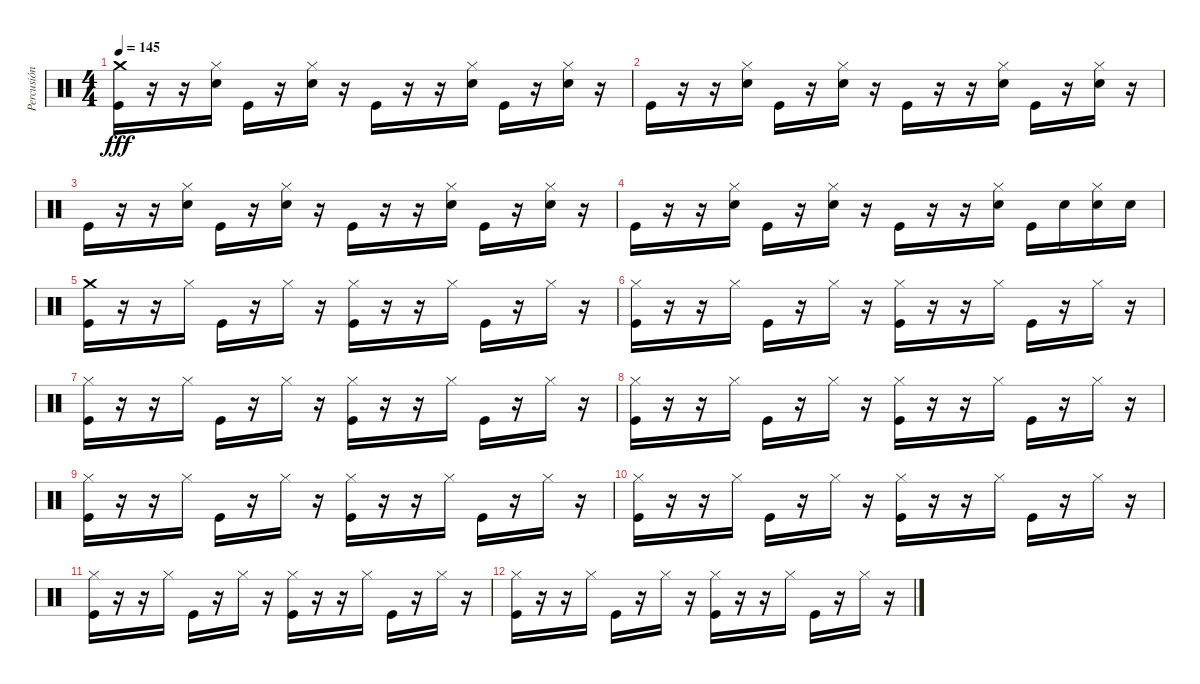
\track ("Percusión" "Percusión") {instrument percussion}
\staff {score}
\articulation defaults
\ts (4 4)
\tempo 145
\clef neutral
\ks c
("Crash medium (hit)" "Kick (hit)").16{dy fff} r.16 r.16 ("Hi-Hat (closed)" "Electric Snare (hit)").16 "Kick (hit)".16 r.16 ("Hi-Hat (closed)" "Electric Snare (hit)").16 r.16 "Kick (hit)".16 r.16 r.16 ("Hi-Hat (closed)" "Electric Snare (hit)").16 "Kick (hit)".16 r.16 ("Hi-Hat (closed)" "Electric Snare (hit)").16 r.16 |
"Kick (hit)".16 r.16 r.16 ("Hi-Hat (closed)" "Electric Snare (hit)").16 "Kick (hit)".16 r.16 ("Hi-Hat (closed)" "Electric Snare (hit)").16 r.16 "Kick (hit)".16 r.16 r.16 ("Hi-Hat (closed)" "Electric Snare (hit)").16 "Kick (hit)".16 r.16 ("Hi-Hat (closed)" "Electric Snare (hit)").16 r.16 |
"Kick (hit)".16 r.16 r.16 ("Hi-Hat (closed)" "Electric Snare (hit)").16 "Kick (hit)".16 r.16 ("Hi-Hat (closed)" "Electric Snare (hit)").16 r.16 "Kick (hit)".16 r.16 r.16 ("Hi-Hat (closed)" "Electric Snare (hit)").16 "Kick (hit)".16 r.16 ("Hi-Hat (closed)" "Electric Snare (hit)").16 r.16 |
"Kick (hit)".16 r.16 r.16 ("Hi-Hat (closed)" "Electric Snare (hit)").16 "Kick (hit)".16 r.16 ("Hi-Hat (closed)" "Electric Snare (hit)").16 r.16 "Kick (hit)".16 r.16 r.16 ("Hi-Hat (closed)" "Electric Snare (hit)").16 "Kick (hit)".16 "Electric Snare (hit)".16 ("Hi-Hat (closed)" "Electric Snare (hit)").16 "Electric Snare (hit)".16 |
("Crash medium (hit)" "Kick (hit)").16 r.16 r.16 "Hi-Hat (closed)".16 "Kick (hit)".16 r.16 "Hi-Hat (closed)".16 r.16 ("Hi-Hat (closed)" "Kick (hit)").16 r.16 r.16 "Hi-Hat (closed)".16 "Kick (hit)".16 r.16 "Hi-Hat (closed)".16 r.16 |
("Hi-Hat (closed)" "Kick (hit)").16 r.16 r.16 "Hi-Hat (closed)".16 "Kick (hit)".16 r.16 "Hi-Hat (closed)".16 r.16 ("Hi-Hat (closed)" "Kick (hit)").16 r.16 r.16 "Hi-Hat (closed)".16 "Kick (hit)".16 r.16 "Hi-Hat (closed)".16 r.16 |
("Hi-Hat (closed)" "Kick (hit)").16 r.16 r.16 "Hi-Hat (closed)".16 "Kick (hit)".16 r.16 "Hi-Hat (closed)".16 r.16 ("Hi-Hat (closed)" "Kick (hit)").16 r.16 r.16 "Hi-Hat (closed)".16 "Kick (hit)".16 r.16 "Hi-Hat (closed)".16 r.16 |
("Hi-Hat (closed)" "Kick (hit)").16 r.16 r.16 "Hi-Hat (closed)".16 "Kick (hit)".16 r.16 "Hi-Hat (closed)".16 r.16 ("Hi-Hat (closed)" "Kick (hit)").16 r.16 r.16 "Hi-Hat (closed)".16 "Kick (hit)".16 r.16 "Hi-Hat (closed)".16 r.16 |
("Hi-Hat (closed)" "Kick (hit)").16 r.16 r.16 "Hi-Hat (closed)".16 "Kick (hit)".16 r.16 "Hi-Hat (closed)".16 r.16 ("Hi-Hat (closed)" "Kick (hit)").16 r.16 r.16 "Hi-Hat (closed)".16 "Kick (hit)".16 r.16 "Hi-Hat (closed)".16 r.16 |
("Hi-Hat (closed)" "Kick (hit)").16 r.16 r.16 "Hi-Hat (closed)".16 "Kick (hit)".16 r.16 "Hi-Hat (closed)".16 r.16 ("Hi-Hat (closed)" "Kick (hit)").16 r.16 r.16 "Hi-Hat (closed)".16 "Kick (hit)".16 r.16 "Hi-Hat (closed)".16 r.16 |
("Hi-Hat (closed)" "Kick (hit)").16 r.16 r.16 "Hi-Hat (closed)".16 "Kick (hit)".16 r.16 "Hi-Hat (closed)".16 r.16 ("Hi-Hat (closed)" "Kick (hit)").16 r.16 r.16 "Hi-Hat (closed)".16 "Kick (hit)".16 r.16 "Hi-Hat (closed)".16 r.16 |
("Hi-Hat (closed)" "Kick (hit)").16 r.16 r.16 "Hi-Hat (closed)".16 "Kick (hit)".16 r.16 "Hi-Hat (closed)".16 r.16 ("Hi-Hat (closed)" "Kick (hit)").16 r.16 r.16 "Hi-Hat (closed)".16 "Kick (hit)".16 r.16 "Hi-Hat (closed)".16 r.16
